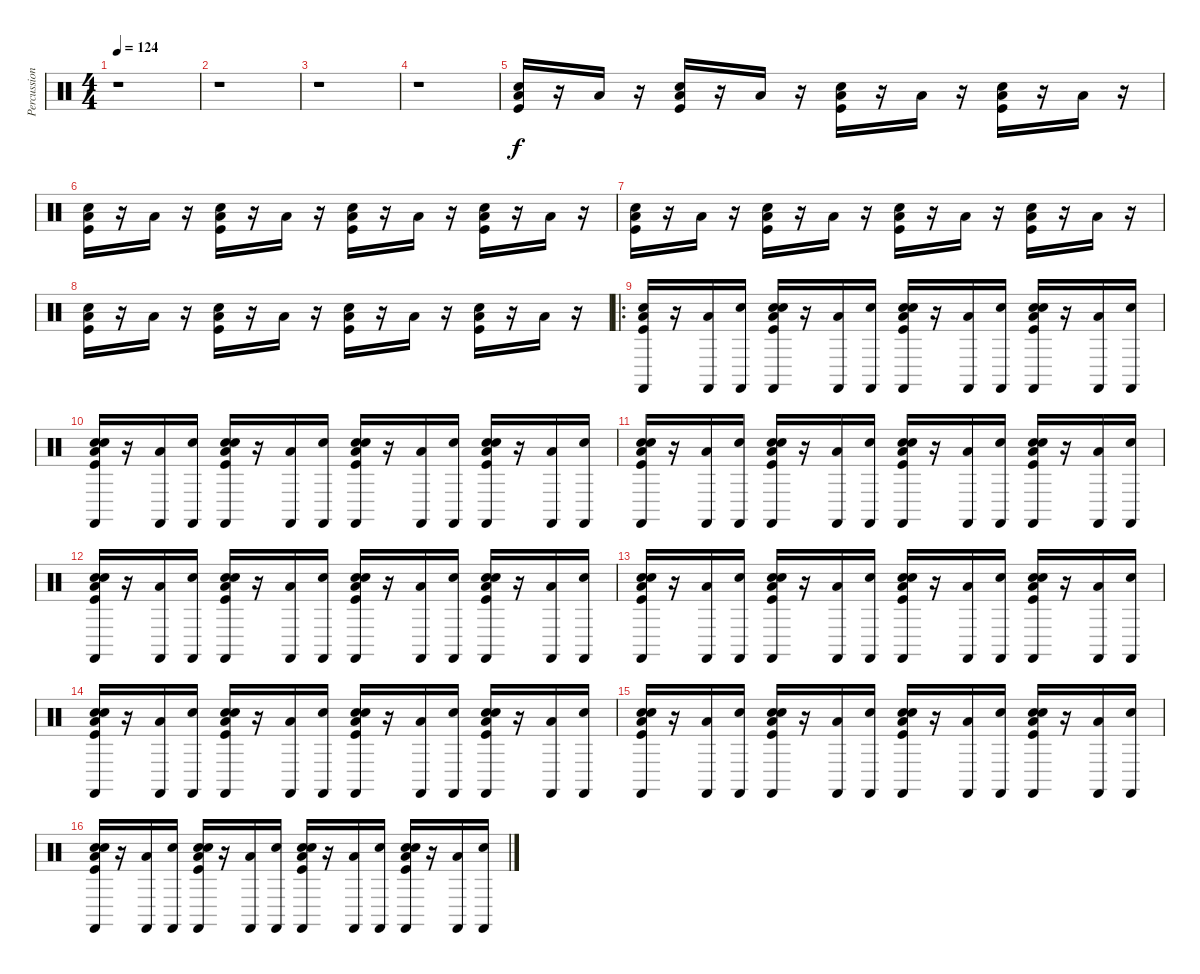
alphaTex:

\track ("Percussion" "Percussion") {instrument percussion}
\staff {score}
\articulation defaults
\ts (4 4)
\tempo 124
\clef neutral
\ks c
r.1{dy f} |
r.1 |
r.1 |
r.1 |
("Low Floor Tom (hit)" "Electric Snare (hit)" "Kick (hit)").16 r.16 "Low Floor Tom (hit)".16 r.16 ("Low Floor Tom (hit)" "Electric Snare (hit)" "Kick (hit)").16 r.16 "Low Tom (hit)".16 r.16 ("Low Tom (hit)" "Electric Snare (hit)" "Kick (hit)").16 r.16 "Low Tom (hit)".16 r.16 ("Low Tom (hit)" "Electric Snare (hit)" "Kick (hit)").16 r.16 "Low Tom (hit)".16 r.16 |
("Low Tom (hit)" "Electric Snare (hit)" "Kick (hit)").16 r.16 "Low Tom (hit)".16 r.16 ("Low Tom (hit)" "Electric Snare (hit)" "Kick (hit)").16 r.16 "Low Tom (hit)".16 r.16 ("Low Tom (hit)" "Electric Snare (hit)" "Kick (hit)").16 r.16 "Low Tom (hit)".16 r.16 ("Low Tom (hit)" "Electric Snare (hit)" "Kick (hit)").16 r.16 "Low Tom (hit)".16 r.16 |
("Low Tom (hit)" "Electric Snare (hit)" "Kick (hit)").16 r.16 "Low Tom (hit)".16 r.16 ("Low Tom (hit)" "Electric Snare (hit)" "Kick (hit)").16 r.16 "Low Tom (hit)".16 r.16 ("Low Tom (hit)" "Electric Snare (hit)" "Kick (hit)").16 r.16 "Low Tom (hit)".16 r.16 ("Low Tom (hit)" "Electric Snare (hit)" "Kick (hit)").16 r.16 "Low Tom (hit)".16 r.16 |
("Low Tom (hit)" "Electric Snare (hit)" "Kick (hit)").16 r.16 "Low Tom (hit)".16 r.16 ("Low Tom (hit)" "Electric Snare (hit)" "Kick (hit)").16 r.16 "Low Tom (hit)".16 r.16 ("Low Tom (hit)" "Electric Snare (hit)" "Kick (hit)").16 r.16 "Low Tom (hit)".16 r.16 ("Low Tom (hit)" "Electric Snare (hit)" "Kick (hit)").16 r.16 "Low Tom (hit)".16 r.16 |
\ro
("Low Tom (hit)" "Electric Snare (hit)" "Kick (hit)" "Castanets (hit)").16 r.16 ("Low Tom (hit)" "Castanets (hit)").16 ("Snare (hit)" "Castanets (hit)").16 ("Snare (hit)" "Low Tom (hit)" "Electric Snare (hit)" "Kick (hit)" "Castanets (hit)").16 r.16 ("Low Tom (hit)" "Castanets (hit)").16 ("Snare (hit)" "Castanets (hit)").16 ("Snare (hit)" "Low Tom (hit)" "Electric Snare (hit)" "Kick (hit)" "Castanets (hit)").16 r.16 ("Low Tom (hit)" "Castanets (hit)").16 ("Snare (hit)" "Castanets (hit)").16 ("Snare (hit)" "Low Tom (hit)" "Electric Snare (hit)" "Kick (hit)" "Castanets (hit)").16 r.16 ("Low Tom (hit)" "Castanets (hit)").16 ("Snare (hit)" "Castanets (hit)").16 |
("Snare (hit)" "Low Tom (hit)" "Electric Snare (hit)" "Kick (hit)" "Castanets (hit)").16 r.16 ("Low Tom (hit)" "Castanets (hit)").16 ("Snare (hit)" "Castanets (hit)").16 ("Snare (hit)" "Low Tom (hit)" "Electric Snare (hit)" "Kick (hit)" "Castanets (hit)").16 r.16 ("Low Tom (hit)" "Castanets (hit)").16 ("Snare (hit)" "Castanets (hit)").16 ("Snare (hit)" "Low Tom (hit)" "Electric Snare (hit)" "Kick (hit)" "Castanets (hit)").16 r.16 ("Low Tom (hit)" "Castanets (hit)").16 ("Snare (hit)" "Castanets (hit)").16 ("Snare (hit)" "Low Tom (hit)" "Electric Snare (hit)" "Kick (hit)" "Castanets (hit)").16 r.16 ("Low Tom (hit)" "Castanets (hit)").16 ("Snare (hit)" "Castanets (hit)").16 |
("Snare (hit)" "Low Tom (hit)" "Electric Snare (hit)" "Kick (hit)" "Castanets (hit)").16 r.16 ("Low Tom (hit)" "Castanets (hit)").16 ("Snare (hit)" "Castanets (hit)").16 ("Snare (hit)" "Low Tom (hit)" "Electric Snare (hit)" "Kick (hit)" "Castanets (hit)").16 r.16 ("Low Tom (hit)" "Castanets (hit)").16 ("Snare (hit)" "Castanets (hit)").16 ("Snare (hit)" "Low Tom (hit)" "Electric Snare (hit)" "Kick (hit)" "Castanets (hit)").16 r.16 ("Low Tom (hit)" "Castanets (hit)").16 ("Snare (hit)" "Castanets (hit)").16 ("Snare (hit)" "Low Tom (hit)" "Electric Snare (hit)" "Kick (hit)" "Castanets (hit)").16 r.16 ("Low Tom (hit)" "Castanets (hit)").16 ("Snare (hit)" "Castanets (hit)").16 |
("Snare (hit)" "Low Tom (hit)" "Electric Snare (hit)" "Kick (hit)" "Castanets (hit)").16 r.16 ("Low Tom (hit)" "Castanets (hit)").16 ("Snare (hit)" "Castanets (hit)").16 ("Snare (hit)" "Low Tom (hit)" "Electric Snare (hit)" "Kick (hit)" "Castanets (hit)").16 r.16 ("Low Tom (hit)" "Castanets (hit)").16 ("Snare (hit)" "Castanets (hit)").16 ("Snare (hit)" "Low Tom (hit)" "Electric Snare (hit)" "Kick (hit)" "Castanets (hit)").16 r.16 ("Low Tom (hit)" "Castanets (hit)").16 ("Snare (hit)" "Castanets (hit)").16 ("Snare (hit)" "Low Tom (hit)" "Electric Snare (hit)" "Kick (hit)" "Castanets (hit)").16 r.16 ("Low Tom (hit)" "Castanets (hit)").16 ("Snare (hit)" "Castanets (hit)").16 |
("Snare (hit)" "Low Tom (hit)" "Electric Snare (hit)" "Kick (hit)" "Castanets (hit)").16 r.16 ("Low Tom (hit)" "Castanets (hit)").16 ("Snare (hit)" "Castanets (hit)").16 ("Snare (hit)" "Low Tom (hit)" "Electric Snare (hit)" "Kick (hit)" "Castanets (hit)").16 r.16 ("Low Tom (hit)" "Castanets (hit)").16 ("Snare (hit)" "Castanets (hit)").16 ("Snare (hit)" "Low Tom (hit)" "Electric Snare (hit)" "Kick (hit)" "Castanets (hit)").16 r.16 ("Low Tom (hit)" "Castanets (hit)").16 ("Snare (hit)" "Castanets (hit)").16 ("Snare (hit)" "Low Tom (hit)" "Electric Snare (hit)" "Kick (hit)" "Castanets (hit)").16 r.16 ("Low Tom (hit)" "Castanets (hit)").16 ("Snare (hit)" "Castanets (hit)").16 |
("Snare (hit)" "Low Tom (hit)" "Electric Snare (hit)" "Kick (hit)" "Castanets (hit)").16 r.16 ("Low Tom (hit)" "Castanets (hit)").16 ("Snare (hit)" "Castanets (hit)").16 ("Snare (hit)" "Low Tom (hit)" "Electric Snare (hit)" "Kick (hit)" "Castanets (hit)").16 r.16 ("Low Tom (hit)" "Castanets (hit)").16 ("Snare (hit)" "Castanets (hit)").16 ("Snare (hit)" "Low Tom (hit)" "Electric Snare (hit)" "Kick (hit)" "Castanets (hit)").16 r.16 ("Low Tom (hit)" "Castanets (hit)").16 ("Snare (hit)" "Castanets (hit)").16 ("Snare (hit)" "Low Tom (hit)" "Electric Snare (hit)" "Kick (hit)" "Castanets (hit)").16 r.16 ("Low Tom (hit)" "Castanets (hit)").16 ("Snare (hit)" "Castanets (hit)").16 |
("Snare (hit)" "Low Tom (hit)" "Electric Snare (hit)" "Kick (hit)" "Castanets (hit)").16 r.16 ("Low Tom (hit)" "Castanets (hit)").16 ("Snare (hit)" "Castanets (hit)").16 ("Snare (hit)" "Low Tom (hit)" "Electric Snare (hit)" "Kick (hit)" "Castanets (hit)").16 r.16 ("Low Tom (hit)" "Castanets (hit)").16 ("Snare (hit)" "Castanets (hit)").16 ("Snare (hit)" "Low Tom (hit)" "Electric Snare (hit)" "Kick (hit)" "Castanets (hit)").16 r.16 ("Low Tom (hit)" "Castanets (hit)").16 ("Snare (hit)" "Castanets (hit)").16 ("Snare (hit)" "Low Tom (hit)" "Electric Snare (hit)" "Kick (hit)" "Castanets (hit)").16 r.16 ("Low Tom (hit)" "Castanets (hit)").16 ("Snare (hit)" "Castanets (hit)").16 |
("Snare (hit)" "Low Tom (hit)" "Electric Snare (hit)" "Kick (hit)" "Castanets (hit)").16 r.16 ("Low Tom (hit)" "Castanets (hit)").16 ("Snare (hit)" "Castanets (hit)").16 ("Snare (hit)" "Low Tom (hit)" "Electric Snare (hit)" "Kick (hit)" "Castanets (hit)").16 r.16 ("Low Tom (hit)" "Castanets (hit)").16 ("Snare (hit)" "Castanets (hit)").16 ("Snare (hit)" "Low Tom (hit)" "Electric Snare (hit)" "Kick (hit)" "Castanets (hit)").16 r.16 ("Low Tom (hit)" "Castanets (hit)").16 ("Snare (hit)" "Castanets (hit)").16 ("Snare (hit)" "Low Tom (hit)" "Electric Snare (hit)" "Kick (hit)" "Castanets (hit)").16 r.16 ("Low Tom (hit)" "Castanets (hit)").16 ("Snare (hit)" "Castanets (hit)").16
